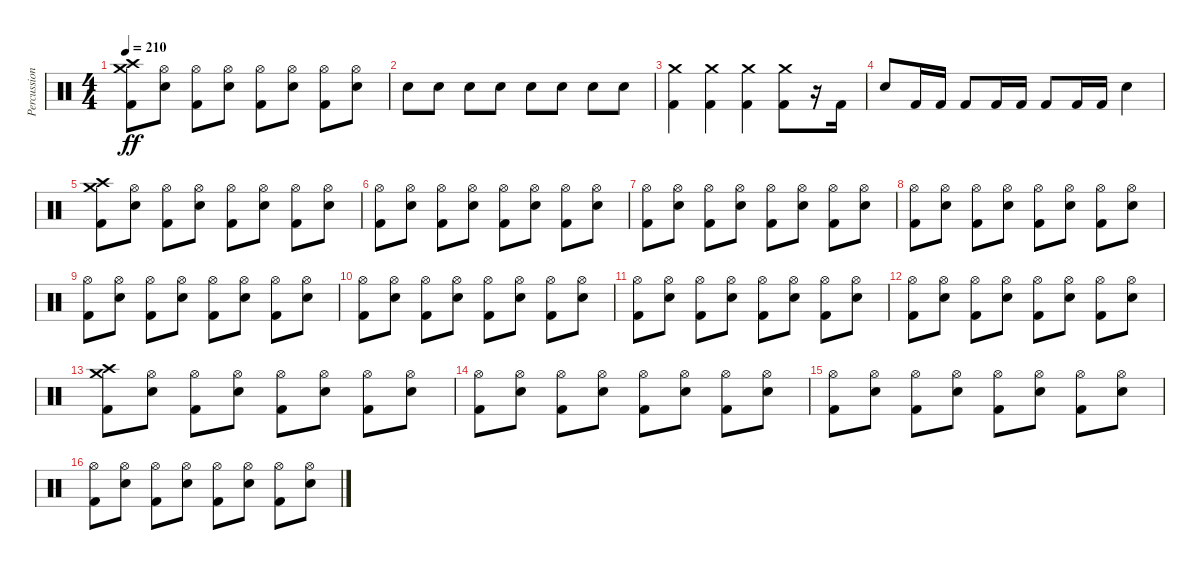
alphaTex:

\track ("Percussion" "Percussion") {instrument percussion}
\staff {score}
\articulation defaults
\ts (4 4)
\tempo 210
\clef neutral
\ks c
("Kick (hit) 2" "Crash medium (hit)" "Crash high (hit)").8{dy ff} ("Electric Snare (hit)" "Hi-Hat (open)").8 ("Kick (hit) 2" "Hi-Hat (open)").8 ("Electric Snare (hit)" "Hi-Hat (open)").8 ("Kick (hit) 2" "Hi-Hat (open)").8 ("Electric Snare (hit)" "Hi-Hat (open)").8 ("Kick (hit) 2" "Hi-Hat (open)").8 ("Electric Snare (hit)" "Hi-Hat (open)").8 |
"Electric Snare (hit)".8 "Electric Snare (hit)".8 "Electric Snare (hit)".8 "Electric Snare (hit)".8 "Electric Snare (hit)".8 "Electric Snare (hit)".8 "Electric Snare (hit)".8 "Electric Snare (hit)".8 |
("Kick (hit) 2" "Crash medium (hit)").4 ("Kick (hit) 2" "Crash medium (hit)").4 ("Kick (hit) 2" "Crash medium (hit)").4 ("Kick (hit) 2" "Crash medium (hit)").8 r.16 "Kick (hit) 2".16 |
"Electric Snare (hit)".8 "Kick (hit) 2".16 "Kick (hit) 2".16 "Kick (hit) 2".8 "Kick (hit) 2".16 "Kick (hit) 2".16 "Kick (hit) 2".8 "Kick (hit) 2".16 "Kick (hit) 2".16 "Electric Snare (hit)".4 |
("Kick (hit) 2" "Crash medium (hit)" "Crash high (hit)").8 ("Electric Snare (hit)" "Hi-Hat (open)").8 ("Kick (hit) 2" "Hi-Hat (open)").8 ("Electric Snare (hit)" "Hi-Hat (open)").8 ("Kick (hit) 2" "Hi-Hat (open)").8 ("Electric Snare (hit)" "Hi-Hat (open)").8 ("Kick (hit) 2" "Hi-Hat (open)").8 ("Electric Snare (hit)" "Hi-Hat (open)").8 |
("Kick (hit) 2" "Hi-Hat (open)").8 ("Electric Snare (hit)" "Hi-Hat (open)").8 ("Kick (hit) 2" "Hi-Hat (open)").8 ("Electric Snare (hit)" "Hi-Hat (open)").8 ("Kick (hit) 2" "Hi-Hat (open)").8 ("Electric Snare (hit)" "Hi-Hat (open)").8 ("Kick (hit) 2" "Hi-Hat (open)").8 ("Electric Snare (hit)" "Hi-Hat (open)").8 |
("Kick (hit) 2" "Hi-Hat (open)").8 ("Electric Snare (hit)" "Hi-Hat (open)").8 ("Kick (hit) 2" "Hi-Hat (open)").8 ("Electric Snare (hit)" "Hi-Hat (open)").8 ("Kick (hit) 2" "Hi-Hat (open)").8 ("Electric Snare (hit)" "Hi-Hat (open)").8 ("Kick (hit) 2" "Hi-Hat (open)").8 ("Electric Snare (hit)" "Hi-Hat (open)").8 |
("Kick (hit) 2" "Hi-Hat (open)").8 ("Electric Snare (hit)" "Hi-Hat (open)").8 ("Kick (hit) 2" "Hi-Hat (open)").8 ("Electric Snare (hit)" "Hi-Hat (open)").8 ("Kick (hit) 2" "Hi-Hat (open)").8 ("Electric Snare (hit)" "Hi-Hat (open)").8 ("Kick (hit) 2" "Hi-Hat (open)").8 ("Electric Snare (hit)" "Hi-Hat (open)").8 |
("Kick (hit) 2" "Hi-Hat (open)").8 ("Electric Snare (hit)" "Hi-Hat (open)").8 ("Kick (hit) 2" "Hi-Hat (open)").8 ("Electric Snare (hit)" "Hi-Hat (open)").8 ("Kick (hit) 2" "Hi-Hat (open)").8 ("Electric Snare (hit)" "Hi-Hat (open)").8 ("Kick (hit) 2" "Hi-Hat (open)").8 ("Electric Snare (hit)" "Hi-Hat (open)").8 |
("Kick (hit) 2" "Hi-Hat (open)").8 ("Electric Snare (hit)" "Hi-Hat (open)").8 ("Kick (hit) 2" "Hi-Hat (open)").8 ("Electric Snare (hit)" "Hi-Hat (open)").8 ("Kick (hit) 2" "Hi-Hat (open)").8 ("Electric Snare (hit)" "Hi-Hat (open)").8 ("Kick (hit) 2" "Hi-Hat (open)").8 ("Electric Snare (hit)" "Hi-Hat (open)").8 |
("Kick (hit) 2" "Hi-Hat (open)").8 ("Electric Snare (hit)" "Hi-Hat (open)").8 ("Kick (hit) 2" "Hi-Hat (open)").8 ("Electric Snare (hit)" "Hi-Hat (open)").8 ("Kick (hit) 2" "Hi-Hat (open)").8 ("Electric Snare (hit)" "Hi-Hat (open)").8 ("Kick (hit) 2" "Hi-Hat (open)").8 ("Electric Snare (hit)" "Hi-Hat (open)").8 |
("Kick (hit) 2" "Hi-Hat (open)").8 ("Electric Snare (hit)" "Hi-Hat (open)").8 ("Kick (hit) 2" "Hi-Hat (open)").8 ("Electric Snare (hit)" "Hi-Hat (open)").8 ("Kick (hit) 2" "Hi-Hat (open)").8 ("Electric Snare (hit)" "Hi-Hat (open)").8 ("Kick (hit) 2" "Hi-Hat (open)").8 ("Electric Snare (hit)" "Hi-Hat (open)").8 |
("Kick (hit) 2" "Crash medium (hit)" "Crash high (hit)").8 ("Electric Snare (hit)" "Hi-Hat (open)").8 ("Kick (hit) 2" "Hi-Hat (open)").8 ("Electric Snare (hit)" "Hi-Hat (open)").8 ("Kick (hit) 2" "Hi-Hat (open)").8 ("Electric Snare (hit)" "Hi-Hat (open)").8 ("Kick (hit) 2" "Hi-Hat (open)").8 ("Electric Snare (hit)" "Hi-Hat (open)").8 |
("Kick (hit) 2" "Hi-Hat (open)").8 ("Electric Snare (hit)" "Hi-Hat (open)").8 ("Kick (hit) 2" "Hi-Hat (open)").8 ("Electric Snare (hit)" "Hi-Hat (open)").8 ("Kick (hit) 2" "Hi-Hat (open)").8 ("Electric Snare (hit)" "Hi-Hat (open)").8 ("Kick (hit) 2" "Hi-Hat (open)").8 ("Electric Snare (hit)" "Hi-Hat (open)").8 |
("Kick (hit) 2" "Hi-Hat (open)").8 ("Electric Snare (hit)" "Hi-Hat (open)").8 ("Kick (hit) 2" "Hi-Hat (open)").8 ("Electric Snare (hit)" "Hi-Hat (open)").8 ("Kick (hit) 2" "Hi-Hat (open)").8 ("Electric Snare (hit)" "Hi-Hat (open)").8 ("Kick (hit) 2" "Hi-Hat (open)").8 ("Electric Snare (hit)" "Hi-Hat (open)").8 |
("Kick (hit) 2" "Hi-Hat (open)").8 ("Electric Snare (hit)" "Hi-Hat (open)").8 ("Kick (hit) 2" "Hi-Hat (open)").8 ("Electric Snare (hit)" "Hi-Hat (open)").8 ("Kick (hit) 2" "Hi-Hat (open)").8 ("Electric Snare (hit)" "Hi-Hat (open)").8 ("Kick (hit) 2" "Hi-Hat (open)").8 ("Electric Snare (hit)" "Hi-Hat (open)").8
